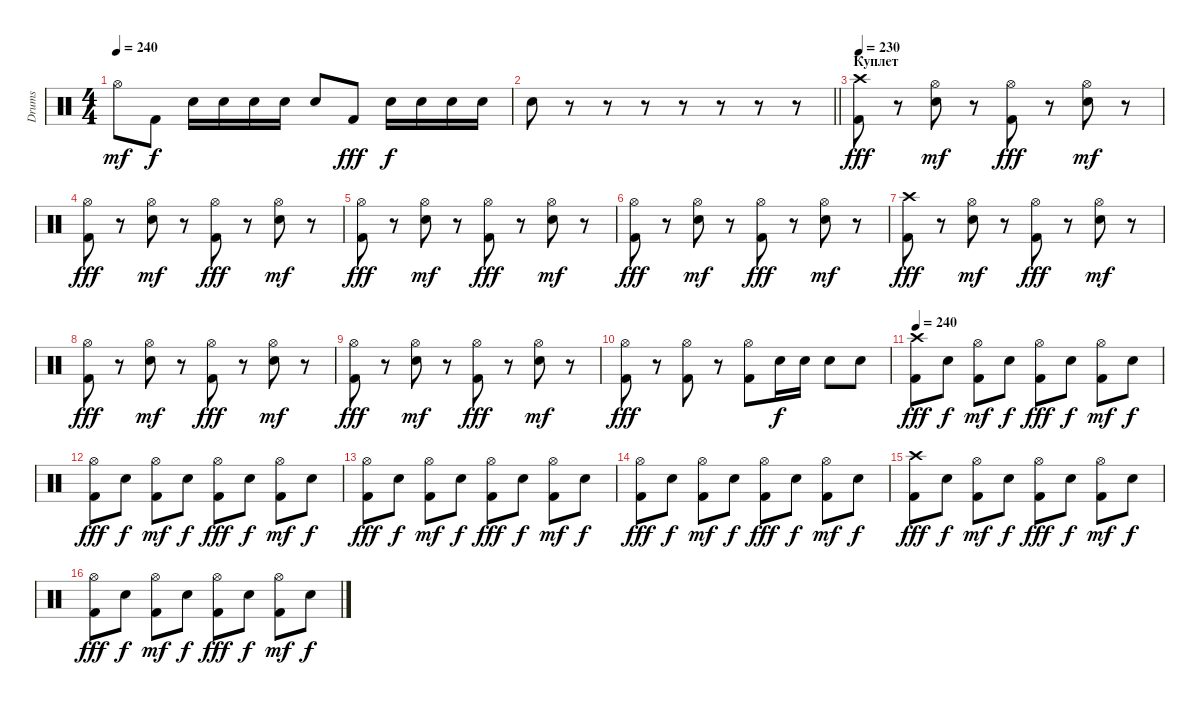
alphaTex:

\track ("Drums" "Drums") {instrument percussion}
\staff {score}
\articulation defaults
\ts (4 4)
\tempo 240
\clef neutral
\ks c "Hi-Hat (open)".8{dy mf} "Kick (hit) 2".8{dy f} "Electric Snare (hit)".16 "Electric Snare (hit)".16 "Electric Snare (hit)".16 "Electric Snare (hit)".16 "Electric Snare (hit)".8 "Kick (hit) 2".8{dy fff} "Electric Snare (hit)".16{dy f} "Electric Snare (hit)".16 "Electric Snare (hit)".16 "Electric Snare (hit)".16
|
\barLineRight lightlight "Electric Snare (hit)".8
r.8 r.8 r.8 r.8 r.8 r.8 r.8 |
\section ("" "Куплет")
\tempo 230
("Crash high (hit)" "Kick (hit) 2").8{dy fff} r.8 ("Hi-Hat (open)" "Electric Snare (hit)").8{dy mf} r.8 ("Hi-Hat (open)" "Kick (hit) 2").8{dy fff} r.8 ("Hi-Hat (open)" "Electric Snare (hit)").8{dy mf} r.8 |
("Hi-Hat (open)" "Kick (hit) 2").8{dy fff} r.8 ("Hi-Hat (open)" "Electric Snare (hit)").8{dy mf} r.8 ("Hi-Hat (open)" "Kick (hit) 2").8{dy fff} r.8 ("Hi-Hat (open)" "Electric Snare (hit)").8{dy mf} r.8 |
("Hi-Hat (open)" "Kick (hit) 2").8{dy fff} r.8 ("Hi-Hat (open)" "Electric Snare (hit)").8{dy mf} r.8 ("Hi-Hat (open)" "Kick (hit) 2").8{dy fff} r.8 ("Hi-Hat (open)" "Electric Snare (hit)").8{dy mf} r.8 |
("Hi-Hat (open)" "Kick (hit) 2").8{dy fff} r.8 ("Hi-Hat (open)" "Electric Snare (hit)").8{dy mf} r.8 ("Hi-Hat (open)" "Kick (hit) 2").8{dy fff} r.8 ("Hi-Hat (open)" "Electric Snare (hit)").8{dy mf} r.8 |
("Crash high (hit)" "Kick (hit) 2").8{dy fff} r.8 ("Hi-Hat (open)" "Electric Snare (hit)").8{dy mf} r.8 ("Hi-Hat (open)" "Kick (hit) 2").8{dy fff} r.8 ("Hi-Hat (open)" "Electric Snare (hit)").8{dy mf} r.8 |
("Hi-Hat (open)" "Kick (hit) 2").8{dy fff} r.8 ("Hi-Hat (open)" "Electric Snare (hit)").8{dy mf} r.8 ("Hi-Hat (open)" "Kick (hit) 2").8{dy fff} r.8 ("Hi-Hat (open)" "Electric Snare (hit)").8{dy mf} r.8 |
("Hi-Hat (open)" "Kick (hit) 2").8{dy fff} r.8 ("Hi-Hat (open)" "Electric Snare (hit)").8{dy mf} r.8 ("Hi-Hat (open)" "Kick (hit) 2").8{dy fff} r.8 ("Hi-Hat (open)" "Electric Snare (hit)").8{dy mf} r.8 |
("Hi-Hat (open)" "Kick (hit) 2").8{dy fff} r.8 ("Hi-Hat (open)" "Kick (hit) 2").8 r.8 ("Hi-Hat (open)" "Kick (hit) 2").8 "Electric Snare (hit)".16{dy f} "Electric Snare (hit)".16 "Electric Snare (hit)".8 "Electric Snare (hit)".8 |
\tempo 240
("Crash high (hit)" "Kick (hit) 2").8{dy fff} "Electric Snare (hit)".8{dy f} ("Hi-Hat (open)" "Kick (hit) 2").8{dy mf} "Electric Snare (hit)".8{dy f} ("Hi-Hat (open)" "Kick (hit) 2").8{dy fff} "Electric Snare (hit)".8{dy f} ("Hi-Hat (open)" "Kick (hit) 2").8{dy mf} "Electric Snare (hit)".8{dy f} |
("Hi-Hat (open)" "Kick (hit) 2").8{dy fff} "Electric Snare (hit)".8{dy f} ("Hi-Hat (open)" "Kick (hit) 2").8{dy mf} "Electric Snare (hit)".8{dy f} ("Hi-Hat (open)" "Kick (hit) 2").8{dy fff} "Electric Snare (hit)".8{dy f} ("Hi-Hat (open)" "Kick (hit) 2").8{dy mf} "Electric Snare (hit)".8{dy f} |
("Hi-Hat (open)" "Kick (hit) 2").8{dy fff} "Electric Snare (hit)".8{dy f} ("Hi-Hat (open)" "Kick (hit) 2").8{dy mf} "Electric Snare (hit)".8{dy f} ("Hi-Hat (open)" "Kick (hit) 2").8{dy fff} "Electric Snare (hit)".8{dy f} ("Hi-Hat (open)" "Kick (hit) 2").8{dy mf} "Electric Snare (hit)".8{dy f} |
("Hi-Hat (open)" "Kick (hit) 2").8{dy fff} "Electric Snare (hit)".8{dy f} ("Hi-Hat (open)" "Kick (hit) 2").8{dy mf} "Electric Snare (hit)".8{dy f} ("Hi-Hat (open)" "Kick (hit) 2").8{dy fff} "Electric Snare (hit)".8{dy f} ("Hi-Hat (open)" "Kick (hit) 2").8{dy mf} "Electric Snare (hit)".8{dy f} |
("Crash high (hit)" "Kick (hit) 2").8{dy fff} "Electric Snare (hit)".8{dy f} ("Hi-Hat (open)" "Kick (hit) 2").8{dy mf} "Electric Snare (hit)".8{dy f} ("Hi-Hat (open)" "Kick (hit) 2").8{dy fff} "Electric Snare (hit)".8{dy f} ("Hi-Hat (open)" "Kick (hit) 2").8{dy mf} "Electric Snare (hit)".8{dy f} |
("Hi-Hat (open)" "Kick (hit) 2").8{dy fff} "Electric Snare (hit)".8{dy f} ("Hi-Hat (open)" "Kick (hit) 2").8{dy mf} "Electric Snare (hit)".8{dy f} ("Hi-Hat (open)" "Kick (hit) 2").8{dy fff} "Electric Snare (hit)".8{dy f} ("Hi-Hat (open)" "Kick (hit) 2").8{dy mf} "Electric Snare (hit)".8{dy f}
